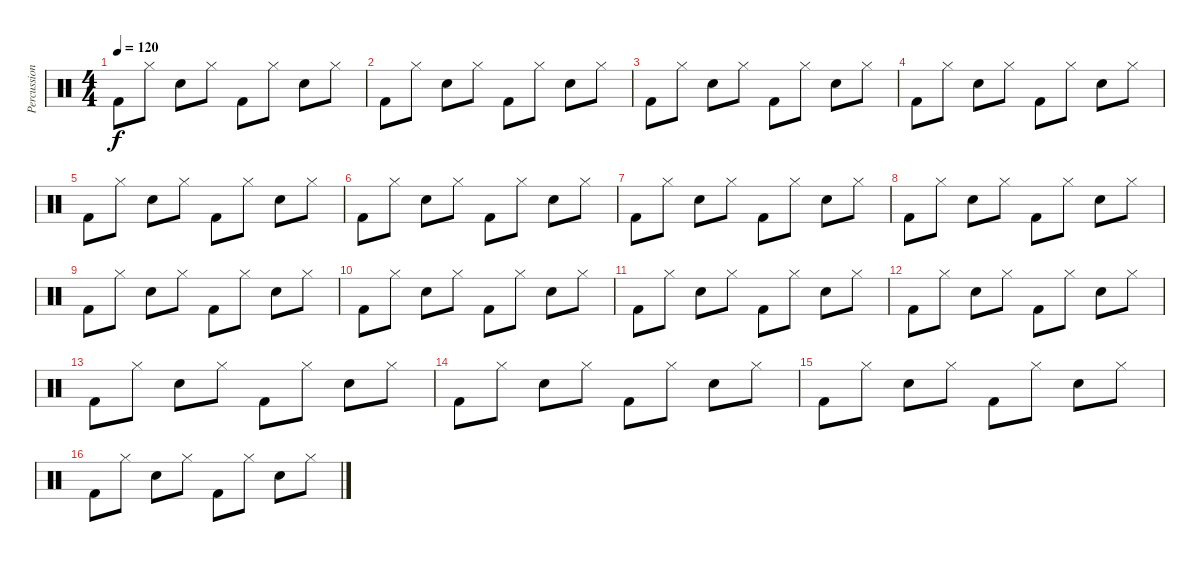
\track ("Percussion" "Percussion") {instrument percussion}
\staff {score}
\articulation defaults
\ts (4 4)
\tempo 120
\clef neutral
\ks c "Kick (hit) 2".8{dy f} "Hi-Hat (closed)".8 "Snare (hit) 2".8 "Hi-Hat (closed)".8 "Kick (hit) 2".8 "Hi-Hat (closed)".8 "Snare (hit) 2".8 "Hi-Hat (closed)".8
|
"Kick (hit) 2".8 "Hi-Hat (closed)".8 "Snare (hit) 2".8 "Hi-Hat (closed)".8 "Kick (hit) 2".8 "Hi-Hat (closed)".8 "Snare (hit) 2".8 "Hi-Hat (closed)".8 |
"Kick (hit) 2".8 "Hi-Hat (closed)".8 "Snare (hit) 2".8 "Hi-Hat (closed)".8 "Kick (hit) 2".8 "Hi-Hat (closed)".8 "Snare (hit) 2".8 "Hi-Hat (closed)".8 |
"Kick (hit) 2".8 "Hi-Hat (closed)".8 "Snare (hit) 2".8 "Hi-Hat (closed)".8 "Kick (hit) 2".8 "Hi-Hat (closed)".8 "Snare (hit) 2".8 "Hi-Hat (closed)".8 |
"Kick (hit) 2".8 "Hi-Hat (closed)".8 "Snare (hit) 2".8 "Hi-Hat (closed)".8 "Kick (hit) 2".8 "Hi-Hat (closed)".8 "Snare (hit) 2".8 "Hi-Hat (closed)".8 |
"Kick (hit) 2".8 "Hi-Hat (closed)".8 "Snare (hit) 2".8 "Hi-Hat (closed)".8 "Kick (hit) 2".8 "Hi-Hat (closed)".8 "Snare (hit) 2".8 "Hi-Hat (closed)".8 |
"Kick (hit) 2".8 "Hi-Hat (closed)".8 "Snare (hit) 2".8 "Hi-Hat (closed)".8 "Kick (hit) 2".8 "Hi-Hat (closed)".8 "Snare (hit) 2".8 "Hi-Hat (closed)".8 |
"Kick (hit) 2".8 "Hi-Hat (closed)".8 "Snare (hit) 2".8 "Hi-Hat (closed)".8 "Kick (hit) 2".8 "Hi-Hat (closed)".8 "Snare (hit) 2".8 "Hi-Hat (closed)".8 |
"Kick (hit) 2".8 "Hi-Hat (closed)".8 "Snare (hit) 2".8 "Hi-Hat (closed)".8 "Kick (hit) 2".8 "Hi-Hat (closed)".8 "Snare (hit) 2".8 "Hi-Hat (closed)".8 |
"Kick (hit) 2".8 "Hi-Hat (closed)".8 "Snare (hit) 2".8 "Hi-Hat (closed)".8 "Kick (hit) 2".8 "Hi-Hat (closed)".8 "Snare (hit) 2".8 "Hi-Hat (closed)".8 |
"Kick (hit) 2".8 "Hi-Hat (closed)".8 "Snare (hit) 2".8 "Hi-Hat (closed)".8 "Kick (hit) 2".8 "Hi-Hat (closed)".8 "Snare (hit) 2".8 "Hi-Hat (closed)".8 |
"Kick (hit) 2".8 "Hi-Hat (closed)".8 "Snare (hit) 2".8 "Hi-Hat (closed)".8 "Kick (hit) 2".8 "Hi-Hat (closed)".8 "Snare (hit) 2".8 "Hi-Hat (closed)".8 |
"Kick (hit) 2".8 "Hi-Hat (closed)".8 "Snare (hit) 2".8 "Hi-Hat (closed)".8 "Kick (hit) 2".8 "Hi-Hat (closed)".8 "Snare (hit) 2".8 "Hi-Hat (closed)".8 |
"Kick (hit) 2".8 "Hi-Hat (closed)".8 "Snare (hit) 2".8 "Hi-Hat (closed)".8 "Kick (hit) 2".8 "Hi-Hat (closed)".8 "Snare (hit) 2".8 "Hi-Hat (closed)".8 |
"Kick (hit) 2".8 "Hi-Hat (closed)".8 "Snare (hit) 2".8 "Hi-Hat (closed)".8 "Kick (hit) 2".8 "Hi-Hat (closed)".8 "Snare (hit) 2".8 "Hi-Hat (closed)".8 |
"Kick (hit) 2".8 "Hi-Hat (closed)".8 "Snare (hit) 2".8 "Hi-Hat (closed)".8 "Kick (hit) 2".8 "Hi-Hat (closed)".8 "Snare (hit) 2".8 "Hi-Hat (closed)".8
